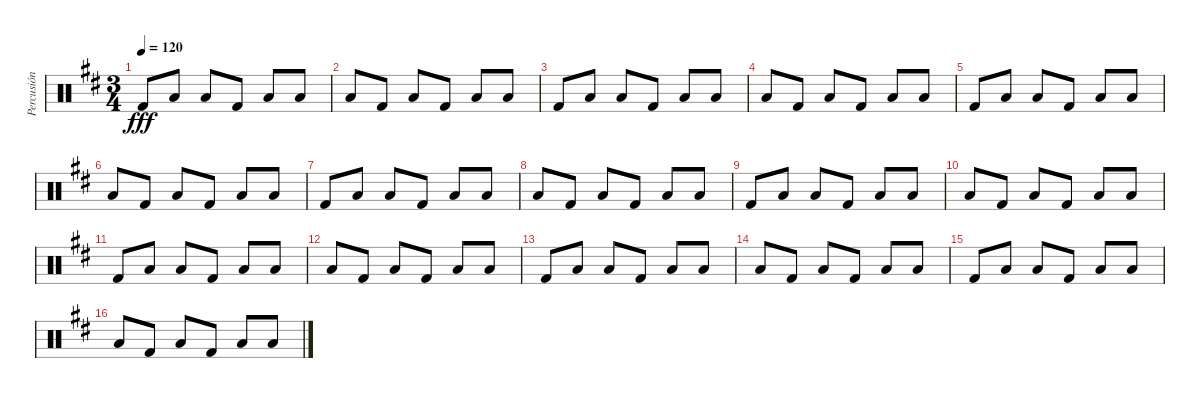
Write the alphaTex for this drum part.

\track ("Percusión" "Percusión") {instrument percussion}
\staff {score}
\articulation defaults
\ts (3 4)
\tempo 120
\clef neutral
\ks d "Kick (hit) 2".8{dy fff} "Low Tom (hit)".8 "Low Tom (hit)".8 "Kick (hit) 2".8 "Low Tom (hit)".8 "Low Tom (hit)".8
|
"Low Tom (hit)".8 "Kick (hit) 2".8 "Low Tom (hit)".8 "Kick (hit) 2".8 "Low Tom (hit)".8 "Low Tom (hit)".8 |
"Kick (hit) 2".8 "Low Tom (hit)".8 "Low Tom (hit)".8 "Kick (hit) 2".8 "Low Tom (hit)".8 "Low Tom (hit)".8 |
"Low Tom (hit)".8 "Kick (hit) 2".8 "Low Tom (hit)".8 "Kick (hit) 2".8 "Low Tom (hit)".8 "Low Tom (hit)".8 |
"Kick (hit) 2".8 "Low Tom (hit)".8 "Low Tom (hit)".8 "Kick (hit) 2".8 "Low Tom (hit)".8 "Low Tom (hit)".8 |
"Low Tom (hit)".8 "Kick (hit) 2".8 "Low Tom (hit)".8 "Kick (hit) 2".8 "Low Tom (hit)".8 "Low Tom (hit)".8 |
"Kick (hit) 2".8 "Low Tom (hit)".8 "Low Tom (hit)".8 "Kick (hit) 2".8 "Low Tom (hit)".8 "Low Tom (hit)".8 |
"Low Tom (hit)".8 "Kick (hit) 2".8 "Low Tom (hit)".8 "Kick (hit) 2".8 "Low Tom (hit)".8 "Low Tom (hit)".8 |
"Kick (hit) 2".8 "Low Tom (hit)".8 "Low Tom (hit)".8 "Kick (hit) 2".8 "Low Tom (hit)".8 "Low Tom (hit)".8 |
"Low Tom (hit)".8 "Kick (hit) 2".8 "Low Tom (hit)".8 "Kick (hit) 2".8 "Low Tom (hit)".8 "Low Tom (hit)".8 |
"Kick (hit) 2".8 "Low Tom (hit)".8 "Low Tom (hit)".8 "Kick (hit) 2".8 "Low Tom (hit)".8 "Low Tom (hit)".8 |
"Low Tom (hit)".8 "Kick (hit) 2".8 "Low Tom (hit)".8 "Kick (hit) 2".8 "Low Tom (hit)".8 "Low Tom (hit)".8 |
"Kick (hit) 2".8 "Low Tom (hit)".8 "Low Tom (hit)".8 "Kick (hit) 2".8 "Low Tom (hit)".8 "Low Tom (hit)".8 |
"Low Tom (hit)".8 "Kick (hit) 2".8 "Low Tom (hit)".8 "Kick (hit) 2".8 "Low Tom (hit)".8 "Low Tom (hit)".8 |
"Kick (hit) 2".8 "Low Tom (hit)".8 "Low Tom (hit)".8 "Kick (hit) 2".8 "Low Tom (hit)".8 "Low Tom (hit)".8 |
"Low Tom (hit)".8 "Kick (hit) 2".8 "Low Tom (hit)".8 "Kick (hit) 2".8 "Low Tom (hit)".8 "Low Tom (hit)".8
